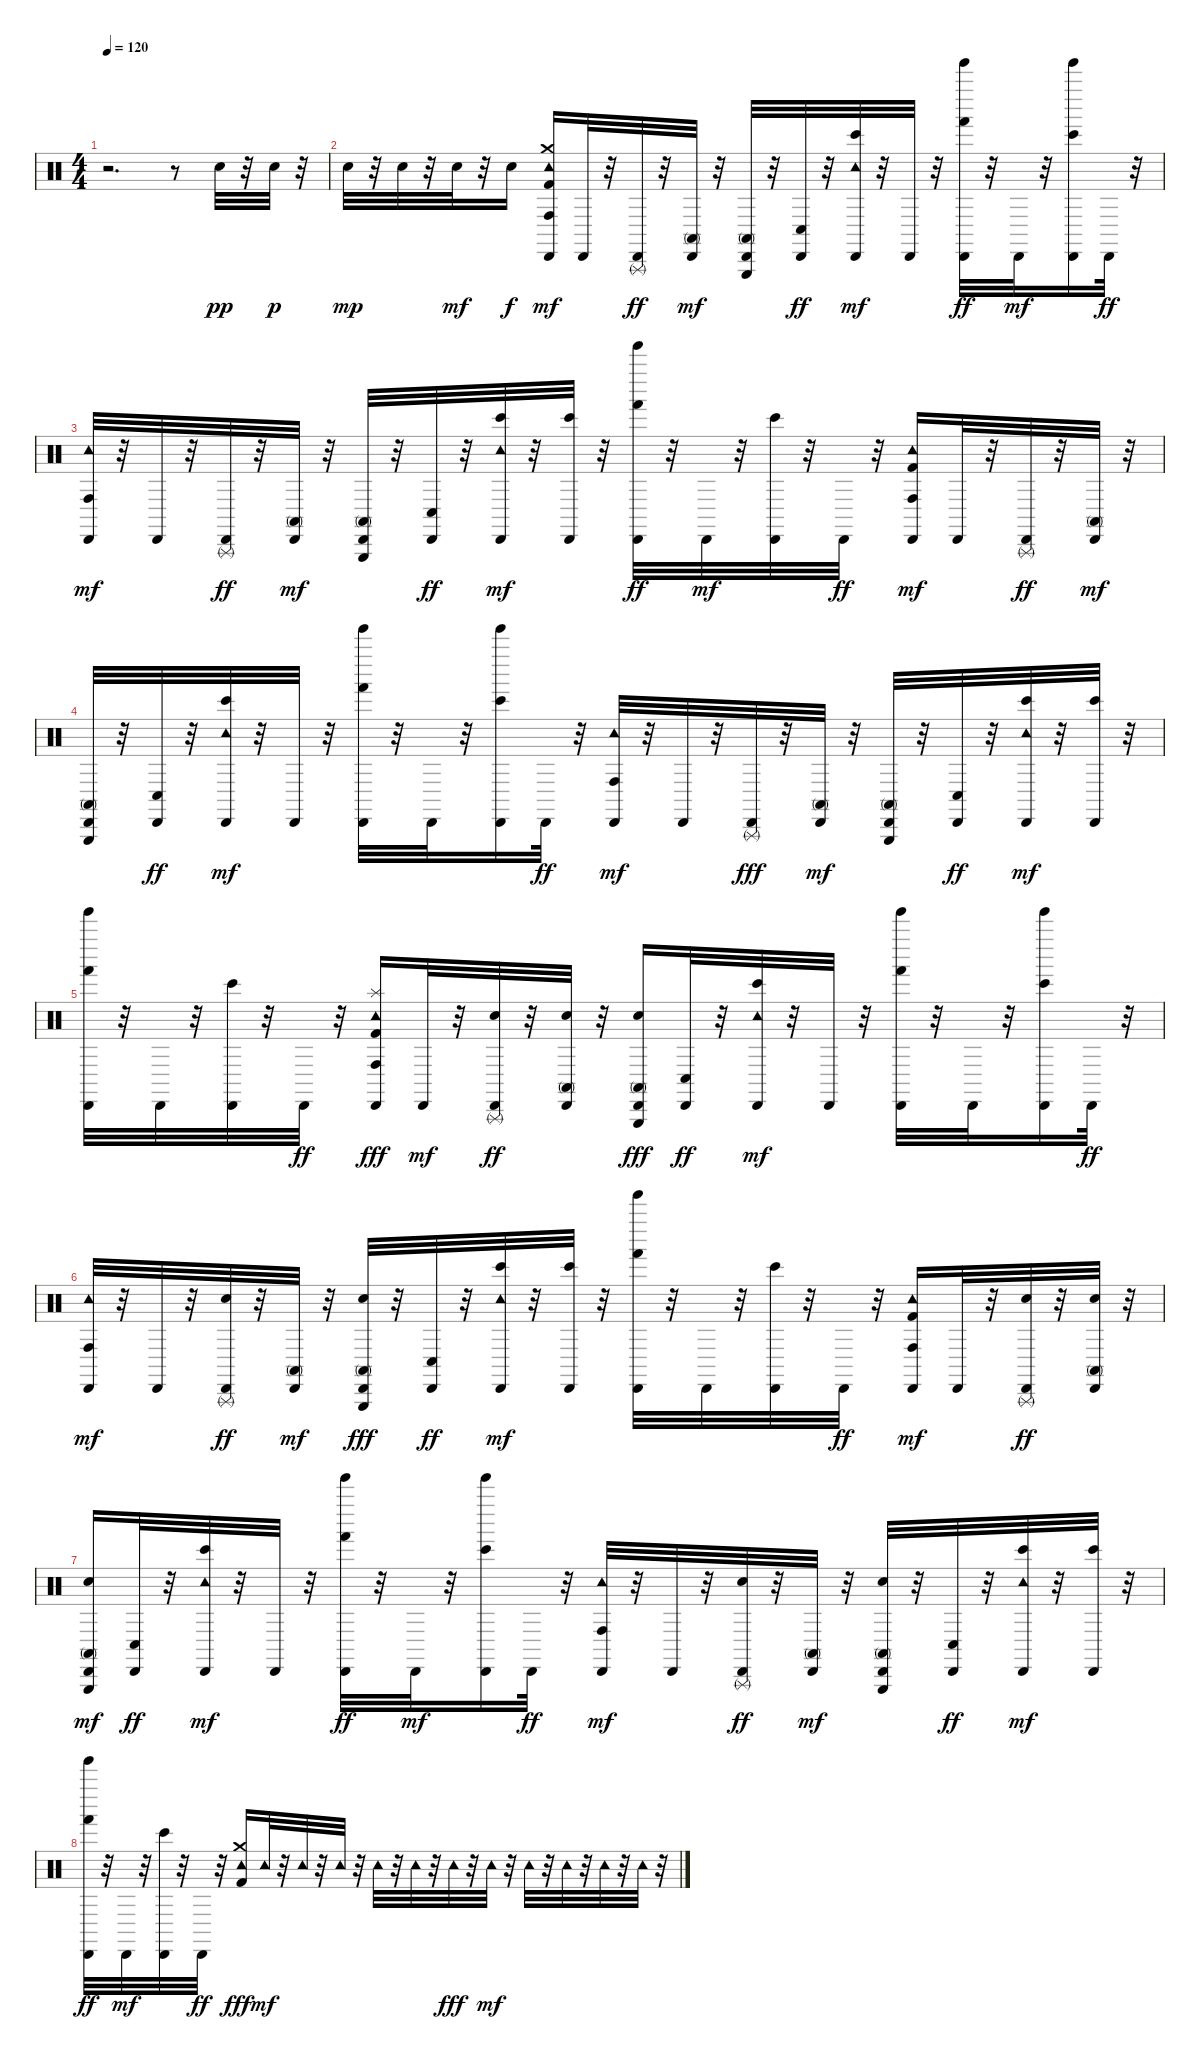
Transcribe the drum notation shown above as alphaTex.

\track "" {instrument percussion}
\staff {score}
\articulation defaults
\ts (4 4)
\tempo 120
\clef neutral
\ks c
r.2{d dy fff} r.8 "Snare (hit) 2".32{dy pp} r.32 "Snare (hit) 2".32{dy p} r.32 |
"Snare (hit) 2".32{dy mp} r.32 "Snare (hit) 2".32 r.32 "Snare (hit) 2".32{dy mf} r.32 "Snare (hit) 2".16{dy f} ("Conga high (hit)" "Tambourine (hit)" "Crash medium (hit)" "Kick (hit) 2" "Cabasa (hit)").16{dy mf} "Cabasa (hit)".32 r.32 ("Triangle (rnute)" "Cabasa (hit)").32{dy ff} r.32 ("Conga high (mute)" "Cabasa (hit)").32{dy mf} r.32 ("Conga high (mute)" "Triangle (hit)" "Cabasa (hit)").32 r.32 ("Conga low (hit)" "Cabasa (hit)").32{dy ff} r.32 ("Bongo High (hit)" "Tambourine (hit)" "Cabasa (hit)").32{dy mf} r.32 "Cabasa (hit)".32 r.32 ("Hand (hit)" "Tinkle Bell (hit)" "Cabasa (hit)").32{dy ff} r.32 "Cabasa (hit)".32{dy mf} r.32 ("Bongo High (hit)" "Tinkle Bell (hit)" "Cabasa (hit)").16 "Cabasa (hit)".32{dy ff} r.32 |
("Conga high (hit)" "Tambourine (hit)" "Cabasa (hit)").32{dy mf} r.32 "Cabasa (hit)".32 r.32 ("Triangle (rnute)" "Cabasa (hit)").32{dy ff} r.32 ("Conga high (mute)" "Cabasa (hit)").32{dy mf} r.32 ("Conga high (mute)" "Triangle (hit)" "Cabasa (hit)").32 r.32 ("Conga low (hit)" "Cabasa (hit)").32{dy ff} r.32 ("Bongo High (hit)" "Tambourine (hit)" "Cabasa (hit)").32{dy mf} r.32 ("Bongo High (hit)" "Cabasa (hit)").32 r.32 ("Hand (hit)" "Tinkle Bell (hit)" "Cabasa (hit)").32{dy ff} r.32 "Cabasa (hit)".32{dy mf} r.32 ("Bongo High (hit)" "Cabasa (hit)").32 r.32 "Cabasa (hit)".32{dy ff} r.32 ("Kick (hit) 2" "Conga high (hit)" "Cabasa (hit)" "Tambourine (hit)").16{dy mf} "Cabasa (hit)".32 r.32 ("Cabasa (hit)" "Triangle (rnute)").32{dy ff} r.32 ("Conga high (mute)" "Cabasa (hit)").32{dy mf} r.32 |
("Conga high (mute)" "Cabasa (hit)" "Triangle (hit)").32 r.32 ("Conga low (hit)" "Cabasa (hit)").32{dy ff} r.32 ("Bongo High (hit)" "Cabasa (hit)" "Tambourine (hit)").32{dy mf} r.32 "Cabasa (hit)".32 r.32 ("Hand (hit)" "Cabasa (hit)" "Tinkle Bell (hit)").32 r.32 "Cabasa (hit)".32 r.32 ("Bongo High (hit)" "Cabasa (hit)" "Tinkle Bell (hit)").16 "Cabasa (hit)".32{dy ff} r.32 ("Conga high (hit)" "Cabasa (hit)" "Tambourine (hit)").32{dy mf} r.32 "Cabasa (hit)".32 r.32 ("Cabasa (hit)" "Triangle (rnute)").32{dy fff} r.32 ("Conga high (mute)" "Cabasa (hit)").32{dy mf} r.32 ("Conga high (mute)" "Cabasa (hit)" "Triangle (hit)").32 r.32 ("Conga low (hit)" "Cabasa (hit)").32{dy ff} r.32 ("Bongo High (hit)" "Cabasa (hit)" "Tambourine (hit)").32{dy mf} r.32 ("Bongo High (hit)" "Cabasa (hit)").32 r.32 |
("Hand (hit)" "Cabasa (hit)" "Tinkle Bell (hit)").32 r.32 "Cabasa (hit)".32 r.32 ("Bongo High (hit)" "Cabasa (hit)").32 r.32 "Cabasa (hit)".32{dy ff} r.32 ("Conga high (hit)" "Splash (hit)" "Cabasa (hit)" "Tambourine (hit)" "Kick (hit) 2").16{dy fff} "Cabasa (hit)".32{dy mf} r.32 ("Cabasa (hit)" "Triangle (rnute)" "Snare (hit) 2").32{dy ff} r.32 ("Conga high (mute)" "Cabasa (hit)" "Snare (hit) 2").32 r.32 ("Conga high (mute)" "Cabasa (hit)" "Triangle (hit)" "Snare (hit) 2").16{dy fff} ("Conga low (hit)" "Cabasa (hit)").32{dy ff} r.32 ("Bongo High (hit)" "Cabasa (hit)" "Tambourine (hit)").32{dy mf} r.32 "Cabasa (hit)".32 r.32 ("Hand (hit)" "Cabasa (hit)" "Tinkle Bell (hit)").32 r.32 "Cabasa (hit)".32 r.32 ("Bongo High (hit)" "Cabasa (hit)" "Tinkle Bell (hit)").16 "Cabasa (hit)".32{dy ff} r.32 |
("Conga high (hit)" "Cabasa (hit)" "Tambourine (hit)").32{dy mf} r.32 "Cabasa (hit)".32 r.32 ("Cabasa (hit)" "Triangle (rnute)" "Snare (hit) 2").32{dy ff} r.32 ("Conga high (mute)" "Cabasa (hit)").32{dy mf} r.32 ("Conga high (mute)" "Cabasa (hit)" "Triangle (hit)" "Snare (hit) 2").32{dy fff} r.32 ("Conga low (hit)" "Cabasa (hit)").32{dy ff} r.32 ("Bongo High (hit)" "Cabasa (hit)" "Tambourine (hit)").32{dy mf} r.32 ("Bongo High (hit)" "Cabasa (hit)").32 r.32 ("Hand (hit)" "Cabasa (hit)" "Tinkle Bell (hit)").32 r.32 "Cabasa (hit)".32 r.32 ("Bongo High (hit)" "Cabasa (hit)").32 r.32 "Cabasa (hit)".32{dy ff} r.32 ("Kick (hit) 2" "Conga high (hit)" "Tambourine (hit)" "Cabasa (hit)").16{dy mf} "Cabasa (hit)".32 r.32 ("Snare (hit) 2" "Triangle (rnute)" "Cabasa (hit)").32{dy ff} r.32 ("Conga high (mute)" "Cabasa (hit)" "Snare (hit) 2").32 r.32 |
("Snare (hit) 2" "Conga high (mute)" "Triangle (hit)" "Cabasa (hit)").16{dy mf} ("Conga low (hit)" "Cabasa (hit)").32{dy ff} r.32 ("Bongo High (hit)" "Tambourine (hit)" "Cabasa (hit)").32{dy mf} r.32 "Cabasa (hit)".32 r.32 ("Hand (hit)" "Tinkle Bell (hit)" "Cabasa (hit)").32{dy ff} r.32 "Cabasa (hit)".32{dy mf} r.32 ("Bongo High (hit)" "Tinkle Bell (hit)" "Cabasa (hit)").16 "Cabasa (hit)".32{dy ff} r.32 ("Conga high (hit)" "Tambourine (hit)" "Cabasa (hit)").32{dy mf} r.32 "Cabasa (hit)".32 r.32 ("Snare (hit) 2" "Triangle (rnute)" "Cabasa (hit)").32{dy ff} r.32 ("Conga high (mute)" "Cabasa (hit)").32{dy mf} r.32 ("Snare (hit) 2" "Conga high (mute)" "Triangle (hit)" "Cabasa (hit)").32 r.32 ("Conga low (hit)" "Cabasa (hit)").32{dy ff} r.32 ("Bongo High (hit)" "Tambourine (hit)" "Cabasa (hit)").32{dy mf} r.32 ("Bongo High (hit)" "Cabasa (hit)").32 r.32 |
("Hand (hit)" "Tinkle Bell (hit)" "Cabasa (hit)").32{dy ff} r.32 "Cabasa (hit)".32{dy mf} r.32 ("Bongo High (hit)" "Cabasa (hit)").32 r.32 "Cabasa (hit)".32{dy ff} r.32 ("Crash medium (hit)" "Kick (hit) 2" "Tambourine (hit)").16{dy fff} "Tambourine (hit)".32{dy mf} r.32 "Tambourine (hit)".32 r.32 "Tambourine (hit)".32 r.32 "Tambourine (hit)".32 r.32 "Tambourine (hit)".32 r.32 "Tambourine (hit)".32{dy fff} r.32 "Tambourine (hit)".32{dy mf} r.32 "Tambourine (hit)".32 r.32 "Tambourine (hit)".32 r.32 "Tambourine (hit)".32 r.32 "Tambourine (hit)".32 r.32
